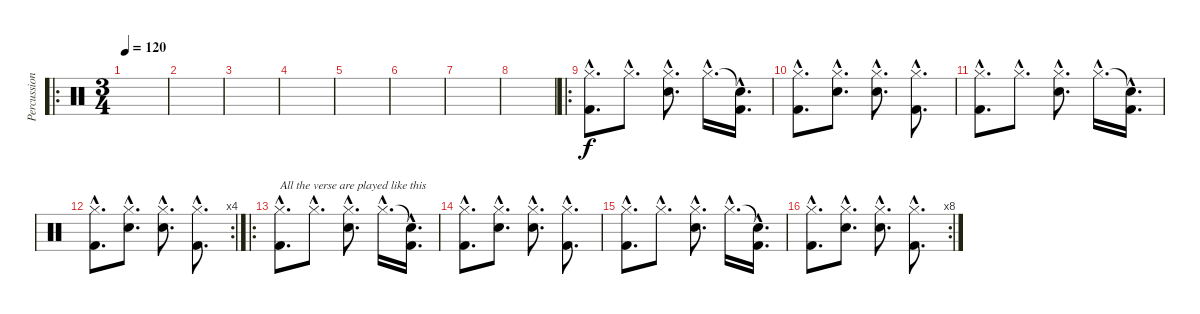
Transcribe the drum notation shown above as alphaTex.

\track ("Percussion" "Percussion") {instrument percussion}
\staff {score}
\articulation defaults
\ro
\ts (3 4)
\tempo 120
\clef neutral
\ks c
|
|
|
|
|
|
|
|
\ro
("Hi-Hat (closed)"{hac} "Kick (hit) 2"{hac}).8{d} "Hi-Hat (closed)"{hac}.8{d} ("Snare (hit) 2"{hac} "Hi-Hat (closed)"{hac}).8{d} "Hi-Hat (closed)"{hac}.16{d} ("Snare (hit)"{hac t} "Kick (hit) 2"{hac}).16{d} |
("Hi-Hat (closed)"{hac} "Kick (hit) 2"{hac}).8{d} ("Snare (hit) 2"{hac} "Hi-Hat (closed)"{hac}).8{d} ("Snare (hit) 2"{hac} "Hi-Hat (closed)"{hac}).8{d} ("Hi-Hat (closed)"{hac} "Kick (hit) 2"{hac}).8{d} |
("Hi-Hat (closed)"{hac} "Kick (hit) 2"{hac}).8{d} "Hi-Hat (closed)"{hac}.8{d} ("Snare (hit) 2"{hac} "Hi-Hat (closed)"{hac}).8{d} "Hi-Hat (closed)"{hac}.16{d} ("Snare (hit)"{hac t} "Kick (hit) 2"{hac}).16{d} |
\rc 4
("Hi-Hat (closed)"{hac} "Kick (hit) 2"{hac}).8{d} ("Snare (hit) 2"{hac} "Hi-Hat (closed)"{hac}).8{d} ("Snare (hit) 2"{hac} "Hi-Hat (closed)"{hac}).8{d} ("Hi-Hat (closed)"{hac} "Kick (hit) 2"{hac}).8{d} |
\ro
("Hi-Hat (closed)"{hac} "Kick (hit) 2"{hac}).8{d txt "All the verse are played like this"} "Hi-Hat (closed)"{hac}.8{d} ("Snare (hit) 2"{hac} "Hi-Hat (closed)"{hac}).8{d} "Hi-Hat (closed)"{hac}.16{d} ("Snare (hit)"{hac t} "Kick (hit) 2"{hac}).16{d} |
("Hi-Hat (closed)"{hac} "Kick (hit) 2"{hac}).8{d} ("Snare (hit) 2"{hac} "Hi-Hat (closed)"{hac}).8{d} ("Snare (hit) 2"{hac} "Hi-Hat (closed)"{hac}).8{d} ("Hi-Hat (closed)"{hac} "Kick (hit) 2"{hac}).8{d} |
("Hi-Hat (closed)"{hac} "Kick (hit) 2"{hac}).8{d} "Hi-Hat (closed)"{hac}.8{d} ("Snare (hit) 2"{hac} "Hi-Hat (closed)"{hac}).8{d} "Hi-Hat (closed)"{hac}.16{d} ("Snare (hit)"{hac t} "Kick (hit) 2"{hac}).16{d} |
\rc 8
("Hi-Hat (closed)"{hac} "Kick (hit) 2"{hac}).8{d} ("Snare (hit) 2"{hac} "Hi-Hat (closed)"{hac}).8{d} ("Snare (hit) 2"{hac} "Hi-Hat (closed)"{hac}).8{d} ("Hi-Hat (closed)"{hac} "Kick (hit) 2"{hac}).8{d}
